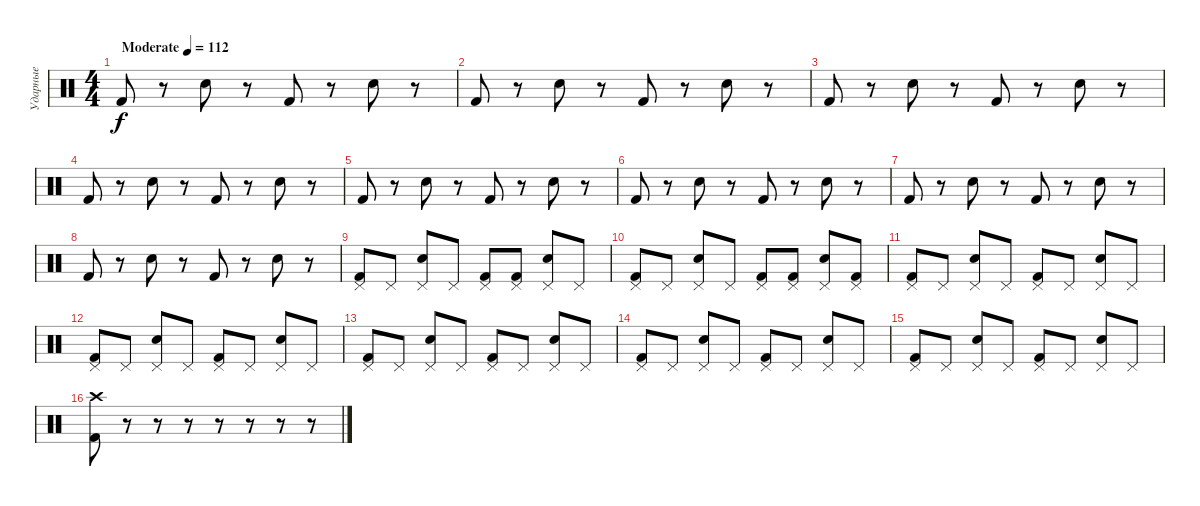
\track ("Ударные" "Ударные") {instrument percussion}
\staff {score}
\articulation defaults
\ts (4 4)
\tempo (112 "Moderate")
\clef neutral
\ks c "Kick (hit) 2".8{dy f}
r.8 "Snare (hit) 2".8 r.8 "Kick (hit) 2".8 r.8 "Snare (hit) 2".8 r.8 |
"Kick (hit) 2".8 r.8 "Snare (hit) 2".8 r.8 "Kick (hit) 2".8 r.8 "Snare (hit) 2".8 r.8 |
"Kick (hit) 2".8 r.8 "Snare (hit) 2".8 r.8 "Kick (hit) 2".8 r.8 "Snare (hit) 2".8 r.8 |
"Kick (hit) 2".8 r.8 "Snare (hit) 2".8 r.8 "Kick (hit) 2".8 r.8 "Snare (hit) 2".8 r.8 |
"Kick (hit) 2".8 r.8 "Snare (hit) 2".8 r.8 "Kick (hit) 2".8 r.8 "Snare (hit) 2".8 r.8 |
"Kick (hit) 2".8 r.8 "Snare (hit) 2".8 r.8 "Kick (hit) 2".8 r.8 "Snare (hit) 2".8 r.8 |
"Kick (hit) 2".8 r.8 "Snare (hit) 2".8 r.8 "Kick (hit) 2".8 r.8 "Snare (hit) 2".8 r.8 |
"Kick (hit) 2".8 r.8 "Snare (hit) 2".8 r.8 "Kick (hit) 2".8 r.8 "Snare (hit) 2".8 r.8 |
("Kick (hit) 2" "Pedal Hi-Hat (hit)").8 "Pedal Hi-Hat (hit)".8 ("Snare (hit) 2" "Pedal Hi-Hat (hit)").8 "Pedal Hi-Hat (hit)".8 ("Kick (hit) 2" "Pedal Hi-Hat (hit)").8 ("Kick (hit) 2" "Pedal Hi-Hat (hit)").8 ("Snare (hit) 2" "Pedal Hi-Hat (hit)").8 "Pedal Hi-Hat (hit)".8 |
("Kick (hit) 2" "Pedal Hi-Hat (hit)").8 "Pedal Hi-Hat (hit)".8 ("Snare (hit) 2" "Pedal Hi-Hat (hit)").8 "Pedal Hi-Hat (hit)".8 ("Kick (hit) 2" "Pedal Hi-Hat (hit)").8 ("Kick (hit) 2" "Pedal Hi-Hat (hit)").8 ("Snare (hit) 2" "Pedal Hi-Hat (hit)").8 ("Kick (hit) 2" "Pedal Hi-Hat (hit)").8 |
("Kick (hit) 2" "Pedal Hi-Hat (hit)").8 "Pedal Hi-Hat (hit)".8 ("Snare (hit) 2" "Pedal Hi-Hat (hit)").8 "Pedal Hi-Hat (hit)".8 ("Kick (hit) 2" "Pedal Hi-Hat (hit)").8 "Pedal Hi-Hat (hit)".8 ("Snare (hit) 2" "Pedal Hi-Hat (hit)").8 "Pedal Hi-Hat (hit)".8 |
("Kick (hit) 2" "Pedal Hi-Hat (hit)").8 "Pedal Hi-Hat (hit)".8 ("Snare (hit) 2" "Pedal Hi-Hat (hit)").8 "Pedal Hi-Hat (hit)".8 ("Kick (hit) 2" "Pedal Hi-Hat (hit)").8 "Pedal Hi-Hat (hit)".8 ("Snare (hit) 2" "Pedal Hi-Hat (hit)").8 "Pedal Hi-Hat (hit)".8 |
("Kick (hit) 2" "Pedal Hi-Hat (hit)").8 "Pedal Hi-Hat (hit)".8 ("Snare (hit) 2" "Pedal Hi-Hat (hit)").8 "Pedal Hi-Hat (hit)".8 ("Kick (hit) 2" "Pedal Hi-Hat (hit)").8 "Pedal Hi-Hat (hit)".8 ("Snare (hit) 2" "Pedal Hi-Hat (hit)").8 "Pedal Hi-Hat (hit)".8 |
("Kick (hit) 2" "Pedal Hi-Hat (hit)").8 "Pedal Hi-Hat (hit)".8 ("Snare (hit) 2" "Pedal Hi-Hat (hit)").8 "Pedal Hi-Hat (hit)".8 ("Kick (hit) 2" "Pedal Hi-Hat (hit)").8 "Pedal Hi-Hat (hit)".8 ("Snare (hit) 2" "Pedal Hi-Hat (hit)").8 "Pedal Hi-Hat (hit)".8 |
("Kick (hit) 2" "Pedal Hi-Hat (hit)").8 "Pedal Hi-Hat (hit)".8 ("Snare (hit) 2" "Pedal Hi-Hat (hit)").8 "Pedal Hi-Hat (hit)".8 ("Kick (hit) 2" "Pedal Hi-Hat (hit)").8 "Pedal Hi-Hat (hit)".8 ("Snare (hit) 2" "Pedal Hi-Hat (hit)").8 "Pedal Hi-Hat (hit)".8 |
("Kick (hit) 2" "Crash high (hit)").8 r.8 r.8 r.8 r.8 r.8 r.8 r.8
